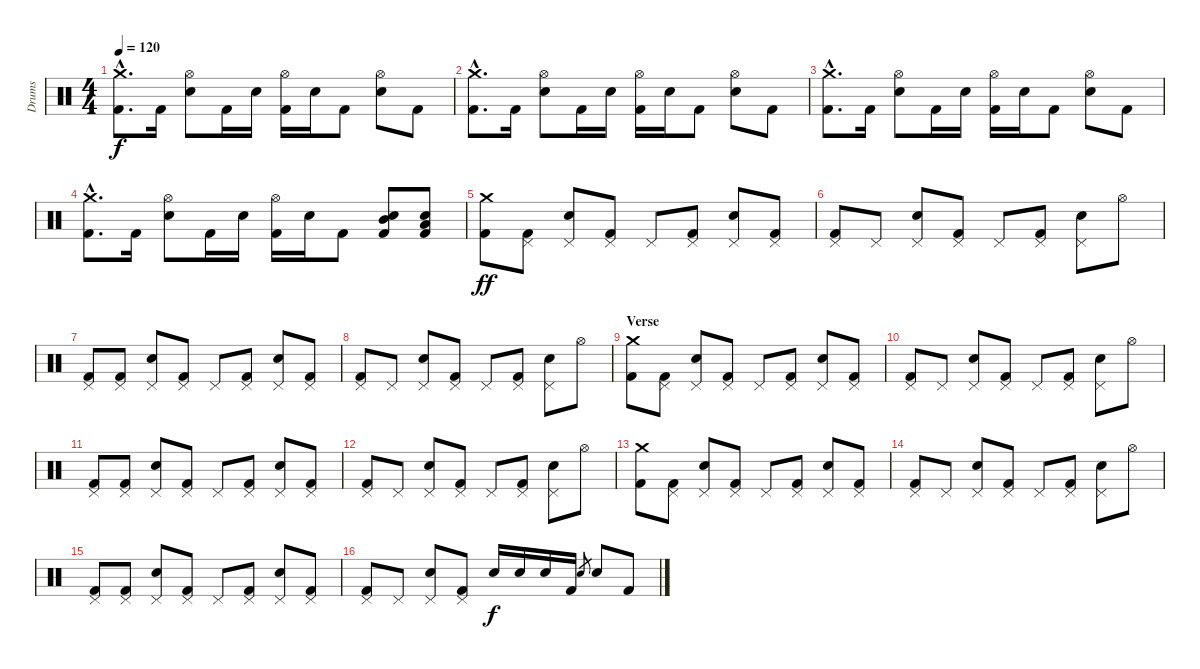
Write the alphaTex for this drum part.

\track ("Drums" "Drums") {instrument percussion}
\staff {score}
\articulation defaults
\ts (4 4)
\tempo 120
\clef neutral
\ks c
("Crash medium (hit)"{hac} "Kick (hit) 2"{hac}).8{d dy f} "Kick (hit) 2".16 ("Hi-Hat (open)" "Electric Snare (hit)").8 "Kick (hit) 2".16 "Electric Snare (hit)".16 ("Hi-Hat (open)" "Kick (hit) 2").16 "Electric Snare (hit)".16 "Kick (hit) 2".8 ("Hi-Hat (open)" "Electric Snare (hit)").8 "Kick (hit) 2".8 |
("Crash medium (hit)"{hac} "Kick (hit) 2"{hac}).8{d} "Kick (hit) 2".16 ("Hi-Hat (open)" "Electric Snare (hit)").8 "Kick (hit) 2".16 "Electric Snare (hit)".16 ("Hi-Hat (open)" "Kick (hit) 2").16 "Electric Snare (hit)".16 "Kick (hit) 2".8 ("Hi-Hat (open)" "Electric Snare (hit)").8 "Kick (hit) 2".8 |
("Crash medium (hit)"{hac} "Kick (hit) 2"{hac}).8{d} "Kick (hit) 2".16 ("Hi-Hat (open)" "Electric Snare (hit)").8 "Kick (hit) 2".16 "Electric Snare (hit)".16 ("Hi-Hat (open)" "Kick (hit) 2").16 "Electric Snare (hit)".16 "Kick (hit) 2".8 ("Hi-Hat (open)" "Electric Snare (hit)").8 "Kick (hit) 2".8 |
("Crash medium (hit)"{hac} "Kick (hit) 2"{hac}).8{d} "Kick (hit) 2".16 ("Hi-Hat (open)" "Electric Snare (hit)").8 "Kick (hit) 2".16 "Electric Snare (hit)".16 ("Hi-Hat (open)" "Kick (hit) 2").16 "Electric Snare (hit)".16 "Kick (hit) 2".8 ("Electric Snare (hit)" "Kick (hit) 2" "Mid Tom (hit)").8 ("Electric Snare (hit)" "Kick (hit) 2" "Low Tom (hit)").8 |
("Crash medium (hit)" "Kick (hit) 2").8{dy ff} ("Pedal Hi-Hat (hit)" "Kick (hit) 2").8 ("Pedal Hi-Hat (hit)" "Electric Snare (hit)").8 ("Pedal Hi-Hat (hit)" "Kick (hit) 2").8 "Pedal Hi-Hat (hit)".8 ("Pedal Hi-Hat (hit)" "Kick (hit) 2").8 ("Pedal Hi-Hat (hit)" "Electric Snare (hit)").8 ("Pedal Hi-Hat (hit)" "Kick (hit) 2").8 |
("Pedal Hi-Hat (hit)" "Kick (hit) 2").8 "Pedal Hi-Hat (hit)".8 ("Pedal Hi-Hat (hit)" "Electric Snare (hit)").8 ("Pedal Hi-Hat (hit)" "Kick (hit) 2").8 "Pedal Hi-Hat (hit)".8 ("Pedal Hi-Hat (hit)" "Kick (hit) 2").8 ("Pedal Hi-Hat (hit)" "Electric Snare (hit)").8 "Hi-Hat (open)".8 |
("Pedal Hi-Hat (hit)" "Kick (hit) 2").8 ("Pedal Hi-Hat (hit)" "Kick (hit) 2").8 ("Pedal Hi-Hat (hit)" "Electric Snare (hit)").8 ("Pedal Hi-Hat (hit)" "Kick (hit) 2").8 "Pedal Hi-Hat (hit)".8 ("Pedal Hi-Hat (hit)" "Kick (hit) 2").8 ("Pedal Hi-Hat (hit)" "Electric Snare (hit)").8 ("Pedal Hi-Hat (hit)" "Kick (hit) 2").8 |
("Pedal Hi-Hat (hit)" "Kick (hit) 2").8 "Pedal Hi-Hat (hit)".8 ("Pedal Hi-Hat (hit)" "Electric Snare (hit)").8 ("Pedal Hi-Hat (hit)" "Kick (hit) 2").8 "Pedal Hi-Hat (hit)".8 ("Pedal Hi-Hat (hit)" "Kick (hit) 2").8 ("Pedal Hi-Hat (hit)" "Electric Snare (hit)").8 "Hi-Hat (open)".8 |
\section ("" "Verse")
("Crash medium (hit)" "Kick (hit) 2").8 ("Pedal Hi-Hat (hit)" "Kick (hit) 2").8 ("Pedal Hi-Hat (hit)" "Electric Snare (hit)").8 ("Pedal Hi-Hat (hit)" "Kick (hit) 2").8 "Pedal Hi-Hat (hit)".8 ("Pedal Hi-Hat (hit)" "Kick (hit) 2").8 ("Pedal Hi-Hat (hit)" "Electric Snare (hit)").8 ("Pedal Hi-Hat (hit)" "Kick (hit) 2").8 |
("Pedal Hi-Hat (hit)" "Kick (hit) 2").8 "Pedal Hi-Hat (hit)".8 ("Pedal Hi-Hat (hit)" "Electric Snare (hit)").8 ("Pedal Hi-Hat (hit)" "Kick (hit) 2").8 "Pedal Hi-Hat (hit)".8 ("Pedal Hi-Hat (hit)" "Kick (hit) 2").8 ("Pedal Hi-Hat (hit)" "Electric Snare (hit)").8 "Hi-Hat (open)".8 |
("Pedal Hi-Hat (hit)" "Kick (hit) 2").8 ("Pedal Hi-Hat (hit)" "Kick (hit) 2").8 ("Pedal Hi-Hat (hit)" "Electric Snare (hit)").8 ("Pedal Hi-Hat (hit)" "Kick (hit) 2").8 "Pedal Hi-Hat (hit)".8 ("Pedal Hi-Hat (hit)" "Kick (hit) 2").8 ("Pedal Hi-Hat (hit)" "Electric Snare (hit)").8 ("Pedal Hi-Hat (hit)" "Kick (hit) 2").8 |
("Pedal Hi-Hat (hit)" "Kick (hit) 2").8 "Pedal Hi-Hat (hit)".8 ("Pedal Hi-Hat (hit)" "Electric Snare (hit)").8 ("Pedal Hi-Hat (hit)" "Kick (hit) 2").8 "Pedal Hi-Hat (hit)".8 ("Pedal Hi-Hat (hit)" "Kick (hit) 2").8 ("Pedal Hi-Hat (hit)" "Electric Snare (hit)").8 "Hi-Hat (open)".8 |
("Crash medium (hit)" "Kick (hit) 2").8 ("Pedal Hi-Hat (hit)" "Kick (hit) 2").8 ("Pedal Hi-Hat (hit)" "Electric Snare (hit)").8 ("Pedal Hi-Hat (hit)" "Kick (hit) 2").8 "Pedal Hi-Hat (hit)".8 ("Pedal Hi-Hat (hit)" "Kick (hit) 2").8 ("Pedal Hi-Hat (hit)" "Electric Snare (hit)").8 ("Pedal Hi-Hat (hit)" "Kick (hit) 2").8 |
("Pedal Hi-Hat (hit)" "Kick (hit) 2").8 "Pedal Hi-Hat (hit)".8 ("Pedal Hi-Hat (hit)" "Electric Snare (hit)").8 ("Pedal Hi-Hat (hit)" "Kick (hit) 2").8 "Pedal Hi-Hat (hit)".8 ("Pedal Hi-Hat (hit)" "Kick (hit) 2").8 ("Pedal Hi-Hat (hit)" "Electric Snare (hit)").8 "Hi-Hat (open)".8 |
("Pedal Hi-Hat (hit)" "Kick (hit) 2").8 ("Pedal Hi-Hat (hit)" "Kick (hit) 2").8 ("Pedal Hi-Hat (hit)" "Electric Snare (hit)").8 ("Pedal Hi-Hat (hit)" "Kick (hit) 2").8 "Pedal Hi-Hat (hit)".8 ("Pedal Hi-Hat (hit)" "Kick (hit) 2").8 ("Pedal Hi-Hat (hit)" "Electric Snare (hit)").8 ("Pedal Hi-Hat (hit)" "Kick (hit) 2").8 |
("Pedal Hi-Hat (hit)" "Kick (hit) 2").8 "Pedal Hi-Hat (hit)".8 ("Pedal Hi-Hat (hit)" "Electric Snare (hit)").8 ("Pedal Hi-Hat (hit)" "Kick (hit) 2").8 "Electric Snare (hit)".16{dy f} "Electric Snare (hit)".16 "Electric Snare (hit)".16 "Kick (hit) 2".16 "Electric Snare (hit)".8{gr} "Electric Snare (hit)".8 "Kick (hit) 2".8
